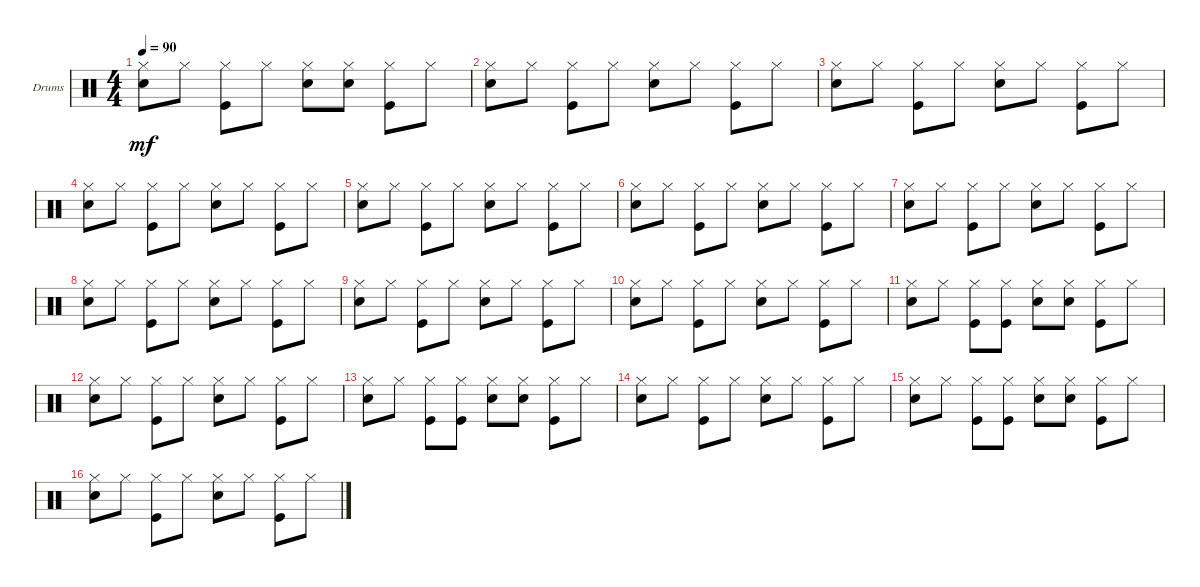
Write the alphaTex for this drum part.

\defaultSystemsLayout 4
\bracketExtendMode groupsimilarinstruments
\firstSystemTrackNameOrientation horizontal
\otherSystemsTrackNameOrientation horizontal
\track ("Drumkit" "Drums") {instrument percussion}
\staff {score}
\articulation defaults
\ts (4 4)
\tempo 90
\clef neutral
\ks c
("Snare (hit) 2" "Hi-Hat (closed)").8{dy mf} "Hi-Hat (closed)".8 ("Kick (hit)" "Hi-Hat (closed)").8 "Hi-Hat (closed)".8 ("Snare (hit) 2" "Hi-Hat (closed)").8 ("Hi-Hat (closed)" "Snare (hit) 2").8 ("Kick (hit)" "Hi-Hat (closed)").8 "Hi-Hat (closed)".8 |
("Snare (hit) 2" "Hi-Hat (closed)").8 "Hi-Hat (closed)".8 ("Kick (hit)" "Hi-Hat (closed)").8 "Hi-Hat (closed)".8 ("Snare (hit) 2" "Hi-Hat (closed)").8 "Hi-Hat (closed)".8 ("Kick (hit)" "Hi-Hat (closed)").8 "Hi-Hat (closed)".8 |
("Snare (hit) 2" "Hi-Hat (closed)").8 "Hi-Hat (closed)".8 ("Kick (hit)" "Hi-Hat (closed)").8 "Hi-Hat (closed)".8 ("Snare (hit) 2" "Hi-Hat (closed)").8 "Hi-Hat (closed)".8 ("Kick (hit)" "Hi-Hat (closed)").8 "Hi-Hat (closed)".8 |
("Snare (hit) 2" "Hi-Hat (closed)").8 "Hi-Hat (closed)".8 ("Kick (hit)" "Hi-Hat (closed)").8 "Hi-Hat (closed)".8 ("Snare (hit) 2" "Hi-Hat (closed)").8 "Hi-Hat (closed)".8 ("Kick (hit)" "Hi-Hat (closed)").8 "Hi-Hat (closed)".8 |
("Snare (hit) 2" "Hi-Hat (closed)").8 "Hi-Hat (closed)".8 ("Kick (hit)" "Hi-Hat (closed)").8 "Hi-Hat (closed)".8 ("Snare (hit) 2" "Hi-Hat (closed)").8 "Hi-Hat (closed)".8 ("Kick (hit)" "Hi-Hat (closed)").8 "Hi-Hat (closed)".8 |
("Snare (hit) 2" "Hi-Hat (closed)").8 "Hi-Hat (closed)".8 ("Kick (hit)" "Hi-Hat (closed)").8 "Hi-Hat (closed)".8 ("Snare (hit) 2" "Hi-Hat (closed)").8 "Hi-Hat (closed)".8 ("Kick (hit)" "Hi-Hat (closed)").8 "Hi-Hat (closed)".8 |
("Snare (hit) 2" "Hi-Hat (closed)").8 "Hi-Hat (closed)".8 ("Kick (hit)" "Hi-Hat (closed)").8 "Hi-Hat (closed)".8 ("Snare (hit) 2" "Hi-Hat (closed)").8 "Hi-Hat (closed)".8 ("Kick (hit)" "Hi-Hat (closed)").8 "Hi-Hat (closed)".8 |
("Snare (hit) 2" "Hi-Hat (closed)").8 "Hi-Hat (closed)".8 ("Kick (hit)" "Hi-Hat (closed)").8 "Hi-Hat (closed)".8 ("Snare (hit) 2" "Hi-Hat (closed)").8 "Hi-Hat (closed)".8 ("Kick (hit)" "Hi-Hat (closed)").8 "Hi-Hat (closed)".8 |
("Snare (hit) 2" "Hi-Hat (closed)").8 "Hi-Hat (closed)".8 ("Kick (hit)" "Hi-Hat (closed)").8 "Hi-Hat (closed)".8 ("Snare (hit) 2" "Hi-Hat (closed)").8 "Hi-Hat (closed)".8 ("Kick (hit)" "Hi-Hat (closed)").8 "Hi-Hat (closed)".8 |
("Snare (hit) 2" "Hi-Hat (closed)").8 "Hi-Hat (closed)".8 ("Kick (hit)" "Hi-Hat (closed)").8 "Hi-Hat (closed)".8 ("Snare (hit) 2" "Hi-Hat (closed)").8 "Hi-Hat (closed)".8 ("Kick (hit)" "Hi-Hat (closed)").8 "Hi-Hat (closed)".8 |
("Snare (hit) 2" "Hi-Hat (closed)").8 "Hi-Hat (closed)".8 ("Kick (hit)" "Hi-Hat (closed)").8 ("Hi-Hat (closed)" "Kick (hit)").8 ("Snare (hit) 2" "Hi-Hat (closed)").8 ("Hi-Hat (closed)" "Snare (hit) 2").8 ("Kick (hit)" "Hi-Hat (closed)").8 "Hi-Hat (closed)".8 |
("Snare (hit) 2" "Hi-Hat (closed)").8 "Hi-Hat (closed)".8 ("Kick (hit)" "Hi-Hat (closed)").8 "Hi-Hat (closed)".8 ("Snare (hit) 2" "Hi-Hat (closed)").8 "Hi-Hat (closed)".8 ("Kick (hit)" "Hi-Hat (closed)").8 "Hi-Hat (closed)".8 |
("Snare (hit) 2" "Hi-Hat (closed)").8 "Hi-Hat (closed)".8 ("Kick (hit)" "Hi-Hat (closed)").8 ("Hi-Hat (closed)" "Kick (hit)").8 ("Snare (hit) 2" "Hi-Hat (closed)").8 ("Hi-Hat (closed)" "Snare (hit) 2").8 ("Kick (hit)" "Hi-Hat (closed)").8 "Hi-Hat (closed)".8 |
("Snare (hit) 2" "Hi-Hat (closed)").8 "Hi-Hat (closed)".8 ("Kick (hit)" "Hi-Hat (closed)").8 "Hi-Hat (closed)".8 ("Snare (hit) 2" "Hi-Hat (closed)").8 "Hi-Hat (closed)".8 ("Kick (hit)" "Hi-Hat (closed)").8 "Hi-Hat (closed)".8 |
("Snare (hit) 2" "Hi-Hat (closed)").8 "Hi-Hat (closed)".8 ("Kick (hit)" "Hi-Hat (closed)").8 ("Hi-Hat (closed)" "Kick (hit)").8 ("Snare (hit) 2" "Hi-Hat (closed)").8 ("Hi-Hat (closed)" "Snare (hit) 2").8 ("Kick (hit)" "Hi-Hat (closed)").8 "Hi-Hat (closed)".8 |
("Snare (hit) 2" "Hi-Hat (closed)").8 "Hi-Hat (closed)".8 ("Kick (hit)" "Hi-Hat (closed)").8 "Hi-Hat (closed)".8 ("Snare (hit) 2" "Hi-Hat (closed)").8 "Hi-Hat (closed)".8 ("Kick (hit)" "Hi-Hat (closed)").8 "Hi-Hat (closed)".8
